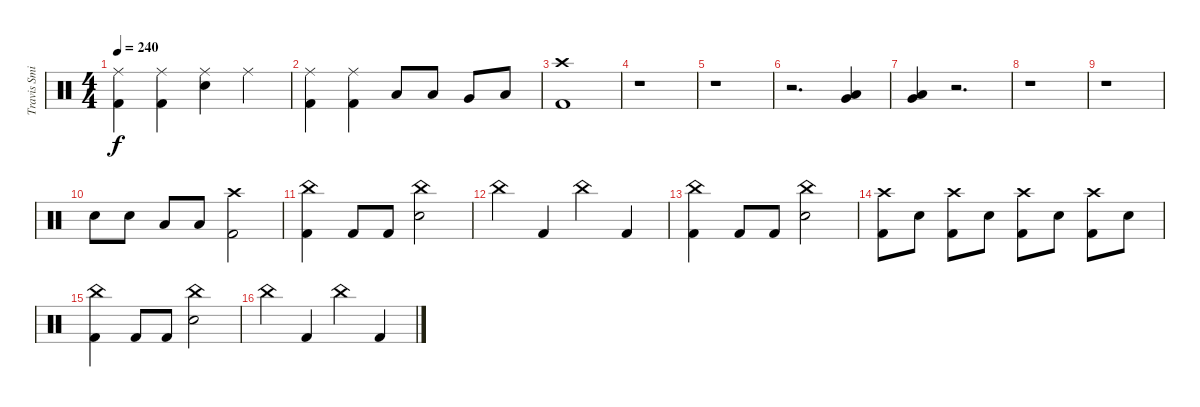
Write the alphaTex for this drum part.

\track ("Travis Smith (Drums)" "Travis Smi") {instrument percussion}
\staff {score}
\articulation defaults
\ts (4 4)
\tempo 240
\clef neutral
\ks c
("Kick (hit) 2" "Ride (middle)").4{dy f} ("Kick (hit) 2" "Ride (middle)").4 ("Snare (hit) 2" "Ride (middle)").4 "Ride (middle)".4 |
("Kick (hit) 2" "Ride (middle)").4 ("Kick (hit) 2" "Ride (middle)").4 "Low Tom (hit)".8 "Low Tom (hit)".8 "Very Low Tom (hit)".8 "Low Floor Tom (hit)".8 |
("Kick (hit) 2" "Crash high (hit)").1 |
r.1 |
r.1 |
r.2{d} ("Very Low Tom (hit)" "Low Floor Tom (hit)").4{bu 240} |
("Very Low Tom (hit)" "Low Floor Tom (hit)").4{bu 240} r.2{d} |
r.1 |
r.1 |
"Snare (hit) 2".8 "Snare (hit) 2".8 "Low Tom (hit)".8 "Low Tom (hit)".8 ("Kick (hit) 2" "Crash high (hit)").2 |
("Kick (hit) 2" "China (hit)").4 "Kick (hit) 2".8 "Kick (hit) 2".8 ("Snare (hit) 2" "China (hit)").2 |
"China (hit)".4 "Kick (hit) 2".4 "China (hit)".4 "Kick (hit) 2".4 |
("Kick (hit) 2" "China (hit)").4 "Kick (hit) 2".8 "Kick (hit) 2".8 ("Snare (hit) 2" "China (hit)").2 |
("Kick (hit) 2" "Crash high (hit)").8 "Snare (hit) 2".8 ("Kick (hit) 2" "Crash high (hit)").8 "Snare (hit) 2".8 ("Kick (hit) 2" "Crash high (hit)").8 "Snare (hit) 2".8 ("Kick (hit) 2" "Crash high (hit)").8 "Snare (hit) 2".8 |
("Kick (hit) 2" "China (hit)").4 "Kick (hit) 2".8 "Kick (hit) 2".8 ("Snare (hit) 2" "China (hit)").2 |
"China (hit)".4 "Kick (hit) 2".4 "China (hit)".4 "Kick (hit) 2".4
